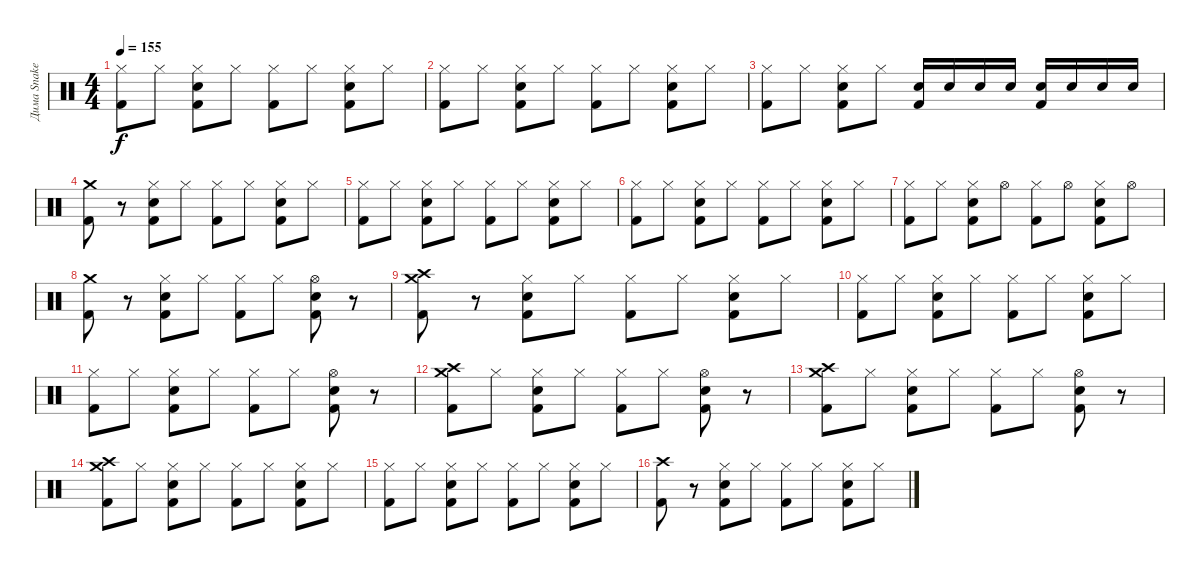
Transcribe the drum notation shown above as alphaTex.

\track ("Дима Snake Хакимов" "Дима Snake") {instrument percussion}
\staff {score}
\articulation defaults
\ts (4 4)
\tempo 155
\clef neutral
\ks c
("Hi-Hat (closed)" "Kick (hit) 2").8{dy f} "Hi-Hat (closed)".8 ("Hi-Hat (closed)" "Snare (hit) 2" "Kick (hit) 2").8 "Hi-Hat (closed)".8 ("Hi-Hat (closed)" "Kick (hit) 2").8 "Hi-Hat (closed)".8 ("Hi-Hat (closed)" "Snare (hit) 2" "Kick (hit) 2").8 "Hi-Hat (closed)".8 |
("Hi-Hat (closed)" "Kick (hit) 2").8 "Hi-Hat (closed)".8 ("Hi-Hat (closed)" "Snare (hit) 2" "Kick (hit) 2").8 "Hi-Hat (closed)".8 ("Hi-Hat (closed)" "Kick (hit) 2").8 "Hi-Hat (closed)".8 ("Hi-Hat (closed)" "Snare (hit) 2" "Kick (hit) 2").8 "Hi-Hat (closed)".8 |
("Hi-Hat (closed)" "Kick (hit) 2").8 "Hi-Hat (closed)".8 ("Hi-Hat (closed)" "Snare (hit) 2" "Kick (hit) 2").8 "Hi-Hat (closed)".8 ("Snare (hit) 2" "Kick (hit) 2").16 "Snare (hit) 2".16 "Snare (hit) 2".16 "Snare (hit) 2".16 ("Snare (hit) 2" "Kick (hit) 2").16 "Snare (hit) 2".16 "Snare (hit) 2".16 "Snare (hit) 2".16 |
("Crash medium (hit)" "Kick (hit) 2").8 r.8 ("Hi-Hat (closed)" "Snare (hit) 2" "Kick (hit) 2").8 "Hi-Hat (closed)".8 ("Hi-Hat (closed)" "Kick (hit) 2").8 "Hi-Hat (closed)".8 ("Hi-Hat (closed)" "Snare (hit) 2" "Kick (hit) 2").8 "Hi-Hat (closed)".8 |
("Hi-Hat (closed)" "Kick (hit) 2").8 "Hi-Hat (closed)".8 ("Hi-Hat (closed)" "Snare (hit) 2" "Kick (hit) 2").8 "Hi-Hat (closed)".8 ("Hi-Hat (closed)" "Kick (hit) 2").8 "Hi-Hat (closed)".8 ("Hi-Hat (closed)" "Snare (hit) 2" "Kick (hit) 2").8 "Hi-Hat (closed)".8 |
("Hi-Hat (closed)" "Kick (hit) 2").8 "Hi-Hat (closed)".8 ("Hi-Hat (closed)" "Snare (hit) 2" "Kick (hit) 2").8 "Hi-Hat (closed)".8 ("Hi-Hat (closed)" "Kick (hit) 2").8 "Hi-Hat (closed)".8 ("Hi-Hat (closed)" "Snare (hit) 2" "Kick (hit) 2").8 "Hi-Hat (closed)".8 |
("Hi-Hat (closed)" "Kick (hit) 2").8 "Hi-Hat (closed)".8 ("Hi-Hat (closed)" "Snare (hit) 2" "Kick (hit) 2").8 "Hi-Hat (open)".8 ("Hi-Hat (closed)" "Kick (hit) 2").8 "Hi-Hat (open)".8 ("Hi-Hat (closed)" "Snare (hit) 2" "Kick (hit) 2").8 "Hi-Hat (open)".8 |
("Crash medium (hit)" "Kick (hit) 2").8 r.8 ("Hi-Hat (closed)" "Snare (hit) 2" "Kick (hit) 2").8 "Hi-Hat (closed)".8 ("Hi-Hat (closed)" "Kick (hit) 2").8 "Hi-Hat (closed)".8 ("Hi-Hat (open)" "Snare (hit) 2" "Kick (hit) 2").8 r.8 |
("Crash high (hit)" "Crash medium (hit)" "Kick (hit) 2").8 r.8 ("Hi-Hat (closed)" "Snare (hit) 2" "Kick (hit) 2").8 "Hi-Hat (closed)".8 ("Hi-Hat (closed)" "Kick (hit) 2").8 "Hi-Hat (closed)".8 ("Hi-Hat (closed)" "Snare (hit) 2" "Kick (hit) 2").8 "Hi-Hat (closed)".8 |
("Hi-Hat (closed)" "Kick (hit) 2").8 "Hi-Hat (closed)".8 ("Hi-Hat (closed)" "Snare (hit) 2" "Kick (hit) 2").8 "Hi-Hat (closed)".8 ("Hi-Hat (closed)" "Kick (hit) 2").8 "Hi-Hat (closed)".8 ("Hi-Hat (closed)" "Snare (hit) 2" "Kick (hit) 2").8 "Hi-Hat (closed)".8 |
("Hi-Hat (closed)" "Kick (hit) 2").8 "Hi-Hat (closed)".8 ("Hi-Hat (closed)" "Snare (hit) 2" "Kick (hit) 2").8 "Hi-Hat (closed)".8 ("Hi-Hat (closed)" "Kick (hit) 2").8 "Hi-Hat (closed)".8 ("Hi-Hat (open)" "Snare (hit) 2" "Kick (hit) 2").8 r.8 |
("Crash high (hit)" "Crash medium (hit)" "Kick (hit) 2").8 "Hi-Hat (closed)".8 ("Hi-Hat (closed)" "Snare (hit) 2" "Kick (hit) 2").8 "Hi-Hat (closed)".8 ("Hi-Hat (closed)" "Kick (hit) 2").8 "Hi-Hat (closed)".8 ("Hi-Hat (open)" "Snare (hit) 2" "Kick (hit) 2").8 r.8 |
("Crash high (hit)" "Crash medium (hit)" "Kick (hit) 2").8 "Hi-Hat (closed)".8 ("Hi-Hat (closed)" "Snare (hit) 2" "Kick (hit) 2").8 "Hi-Hat (closed)".8 ("Hi-Hat (closed)" "Kick (hit) 2").8 "Hi-Hat (closed)".8 ("Hi-Hat (open)" "Snare (hit) 2" "Kick (hit) 2").8 r.8 |
("Crash high (hit)" "Crash medium (hit)" "Kick (hit) 2").8 "Hi-Hat (closed)".8 ("Hi-Hat (closed)" "Snare (hit) 2" "Kick (hit) 2").8 "Hi-Hat (closed)".8 ("Hi-Hat (closed)" "Kick (hit) 2").8 "Hi-Hat (closed)".8 ("Hi-Hat (closed)" "Snare (hit) 2" "Kick (hit) 2").8 "Hi-Hat (closed)".8 |
("Hi-Hat (closed)" "Kick (hit) 2").8 "Hi-Hat (closed)".8 ("Hi-Hat (closed)" "Snare (hit) 2" "Kick (hit) 2").8 "Hi-Hat (closed)".8 ("Hi-Hat (closed)" "Kick (hit) 2").8 "Hi-Hat (closed)".8 ("Hi-Hat (closed)" "Snare (hit) 2" "Kick (hit) 2").8 "Hi-Hat (closed)".8 |
("Crash high (hit)" "Kick (hit) 2").8 r.8 ("Hi-Hat (closed)" "Snare (hit) 2" "Kick (hit) 2").8 "Hi-Hat (closed)".8 ("Hi-Hat (closed)" "Kick (hit) 2").8 "Hi-Hat (closed)".8 ("Hi-Hat (closed)" "Snare (hit) 2" "Kick (hit) 2").8 "Hi-Hat (closed)".8
